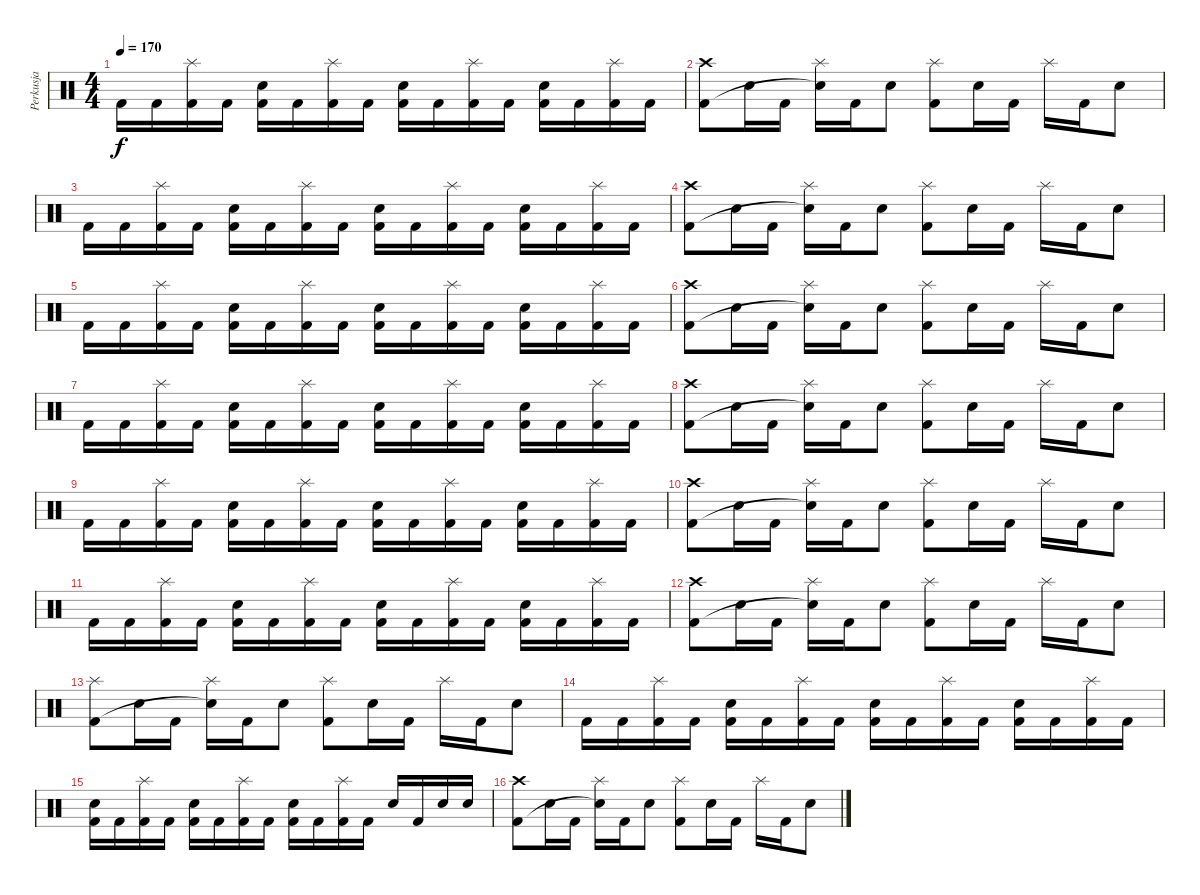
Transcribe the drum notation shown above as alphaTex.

\track ("Perkusja" "Perkusja") {instrument percussion}
\staff {score}
\articulation defaults
\ts (4 4)
\tempo 170
\clef neutral
\ks c "Kick (hit) 2".16{dy f} "Kick (hit) 2".16
("Splash (hit)" "Kick (hit) 2").16 "Kick (hit) 2".16 ("Snare (hit) 2" "Kick (hit) 2").16 "Kick (hit) 2".16 ("Splash (hit)" "Kick (hit) 2").16 "Kick (hit) 2".16 ("Snare (hit) 2" "Kick (hit) 2").16 "Kick (hit) 2".16 ("Splash (hit)" "Kick (hit) 2").16 "Kick (hit) 2".16 ("Snare (hit) 2" "Kick (hit) 2").16 "Kick (hit) 2".16 ("Splash (hit)" "Kick (hit) 2").16 "Kick (hit) 2".16 |
("Crash high (hit)" "Kick (hit) 2").8 "Snare (hit) 2".16 "Kick (hit) 2".16 ("Splash (hit)" "Snare (hit)"{t}).16 "Kick (hit) 2".16 "Snare (hit) 2".8 ("Splash (hit)" "Kick (hit) 2").8 "Snare (hit) 2".16 "Kick (hit) 2".16 "Splash (hit)".16 "Kick (hit) 2".16 "Snare (hit) 2".8 |
"Kick (hit) 2".16 "Kick (hit) 2".16 ("Splash (hit)" "Kick (hit) 2").16 "Kick (hit) 2".16 ("Snare (hit) 2" "Kick (hit) 2").16 "Kick (hit) 2".16 ("Splash (hit)" "Kick (hit) 2").16 "Kick (hit) 2".16 ("Snare (hit) 2" "Kick (hit) 2").16 "Kick (hit) 2".16 ("Splash (hit)" "Kick (hit) 2").16 "Kick (hit) 2".16 ("Snare (hit) 2" "Kick (hit) 2").16 "Kick (hit) 2".16 ("Splash (hit)" "Kick (hit) 2").16 "Kick (hit) 2".16 |
("Crash high (hit)" "Kick (hit) 2").8 "Snare (hit) 2".16 "Kick (hit) 2".16 ("Splash (hit)" "Snare (hit)"{t}).16 "Kick (hit) 2".16 "Snare (hit) 2".8 ("Splash (hit)" "Kick (hit) 2").8 "Snare (hit) 2".16 "Kick (hit) 2".16 "Splash (hit)".16 "Kick (hit) 2".16 "Snare (hit) 2".8 |
"Kick (hit) 2".16 "Kick (hit) 2".16 ("Splash (hit)" "Kick (hit) 2").16 "Kick (hit) 2".16 ("Snare (hit) 2" "Kick (hit) 2").16 "Kick (hit) 2".16 ("Splash (hit)" "Kick (hit) 2").16 "Kick (hit) 2".16 ("Snare (hit) 2" "Kick (hit) 2").16 "Kick (hit) 2".16 ("Splash (hit)" "Kick (hit) 2").16 "Kick (hit) 2".16 ("Snare (hit) 2" "Kick (hit) 2").16 "Kick (hit) 2".16 ("Splash (hit)" "Kick (hit) 2").16 "Kick (hit) 2".16 |
("Crash high (hit)" "Kick (hit) 2").8 "Snare (hit) 2".16 "Kick (hit) 2".16 ("Splash (hit)" "Snare (hit)"{t}).16 "Kick (hit) 2".16 "Snare (hit) 2".8 ("Splash (hit)" "Kick (hit) 2").8 "Snare (hit) 2".16 "Kick (hit) 2".16 "Splash (hit)".16 "Kick (hit) 2".16 "Snare (hit) 2".8 |
"Kick (hit) 2".16 "Kick (hit) 2".16 ("Splash (hit)" "Kick (hit) 2").16 "Kick (hit) 2".16 ("Snare (hit) 2" "Kick (hit) 2").16 "Kick (hit) 2".16 ("Splash (hit)" "Kick (hit) 2").16 "Kick (hit) 2".16 ("Snare (hit) 2" "Kick (hit) 2").16 "Kick (hit) 2".16 ("Splash (hit)" "Kick (hit) 2").16 "Kick (hit) 2".16 ("Snare (hit) 2" "Kick (hit) 2").16 "Kick (hit) 2".16 ("Splash (hit)" "Kick (hit) 2").16 "Kick (hit) 2".16 |
("Crash high (hit)" "Kick (hit) 2").8 "Snare (hit) 2".16 "Kick (hit) 2".16 ("Splash (hit)" "Snare (hit)"{t}).16 "Kick (hit) 2".16 "Snare (hit) 2".8 ("Splash (hit)" "Kick (hit) 2").8 "Snare (hit) 2".16 "Kick (hit) 2".16 "Splash (hit)".16 "Kick (hit) 2".16 "Snare (hit) 2".8 |
"Kick (hit) 2".16 "Kick (hit) 2".16 ("Splash (hit)" "Kick (hit) 2").16 "Kick (hit) 2".16 ("Snare (hit) 2" "Kick (hit) 2").16 "Kick (hit) 2".16 ("Splash (hit)" "Kick (hit) 2").16 "Kick (hit) 2".16 ("Snare (hit) 2" "Kick (hit) 2").16 "Kick (hit) 2".16 ("Splash (hit)" "Kick (hit) 2").16 "Kick (hit) 2".16 ("Snare (hit) 2" "Kick (hit) 2").16 "Kick (hit) 2".16 ("Splash (hit)" "Kick (hit) 2").16 "Kick (hit) 2".16 |
("Crash high (hit)" "Kick (hit) 2").8 "Snare (hit) 2".16 "Kick (hit) 2".16 ("Splash (hit)" "Snare (hit)"{t}).16 "Kick (hit) 2".16 "Snare (hit) 2".8 ("Splash (hit)" "Kick (hit) 2").8 "Snare (hit) 2".16 "Kick (hit) 2".16 "Splash (hit)".16 "Kick (hit) 2".16 "Snare (hit) 2".8 |
"Kick (hit) 2".16 "Kick (hit) 2".16 ("Splash (hit)" "Kick (hit) 2").16 "Kick (hit) 2".16 ("Snare (hit) 2" "Kick (hit) 2").16 "Kick (hit) 2".16 ("Splash (hit)" "Kick (hit) 2").16 "Kick (hit) 2".16 ("Snare (hit) 2" "Kick (hit) 2").16 "Kick (hit) 2".16 ("Splash (hit)" "Kick (hit) 2").16 "Kick (hit) 2".16 ("Snare (hit) 2" "Kick (hit) 2").16 "Kick (hit) 2".16 ("Splash (hit)" "Kick (hit) 2").16 "Kick (hit) 2".16 |
("Crash high (hit)" "Kick (hit) 2").8 "Snare (hit) 2".16 "Kick (hit) 2".16 ("Splash (hit)" "Snare (hit)"{t}).16 "Kick (hit) 2".16 "Snare (hit) 2".8 ("Splash (hit)" "Kick (hit) 2").8 "Snare (hit) 2".16 "Kick (hit) 2".16 "Splash (hit)".16 "Kick (hit) 2".16 "Snare (hit) 2".8 |
("Splash (hit)" "Kick (hit) 2").8 "Snare (hit) 2".16 "Kick (hit) 2".16 ("Splash (hit)" "Snare (hit)"{t}).16 "Kick (hit) 2".16 "Snare (hit) 2".8 ("Splash (hit)" "Kick (hit) 2").8 "Snare (hit) 2".16 "Kick (hit) 2".16 "Splash (hit)".16 "Kick (hit) 2".16 "Snare (hit) 2".8 |
"Kick (hit) 2".16 "Kick (hit) 2".16 ("Splash (hit)" "Kick (hit) 2").16 "Kick (hit) 2".16 ("Snare (hit) 2" "Kick (hit) 2").16 "Kick (hit) 2".16 ("Splash (hit)" "Kick (hit) 2").16 "Kick (hit) 2".16 ("Snare (hit) 2" "Kick (hit) 2").16 "Kick (hit) 2".16 ("Splash (hit)" "Kick (hit) 2").16 "Kick (hit) 2".16 ("Snare (hit) 2" "Kick (hit) 2").16 "Kick (hit) 2".16 ("Splash (hit)" "Kick (hit) 2").16 "Kick (hit) 2".16 |
("Snare (hit) 2" "Kick (hit) 2").16 "Kick (hit) 2".16 ("Splash (hit)" "Kick (hit) 2").16 "Kick (hit) 2".16 ("Snare (hit) 2" "Kick (hit) 2").16 "Kick (hit) 2".16 ("Splash (hit)" "Kick (hit) 2").16 "Kick (hit) 2".16 ("Snare (hit) 2" "Kick (hit) 2").16 "Kick (hit) 2".16 ("Splash (hit)" "Kick (hit) 2").16 "Kick (hit) 2".16 "Snare (hit) 2".16 "Kick (hit) 2".16 "Snare (hit) 2".16 "Snare (hit) 2".16 |
("Crash high (hit)" "Kick (hit) 2").8 "Snare (hit) 2".16 "Kick (hit) 2".16 ("Splash (hit)" "Snare (hit)"{t}).16 "Kick (hit) 2".16 "Snare (hit) 2".8 ("Splash (hit)" "Kick (hit) 2").8 "Snare (hit) 2".16 "Kick (hit) 2".16 "Splash (hit)".16 "Kick (hit) 2".16 "Snare (hit) 2".8
